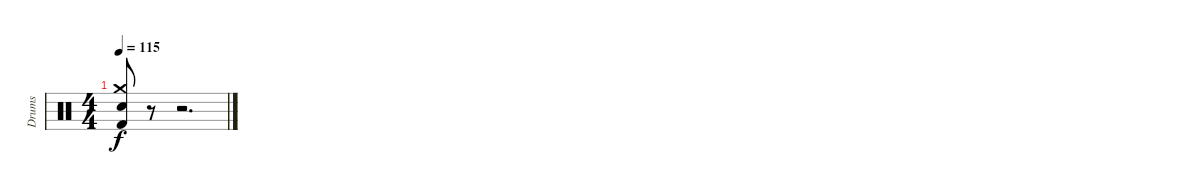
\track ("Drums" "Drums") {instrument percussion}
\staff {score}
\articulation defaults
\ts (4 4)
\tempo 115
\clef neutral
\ks c
("Kick (hit) 2" "Crash medium (hit)" "Electric Snare (hit)").8{dy f} r.8 r.2{d}
